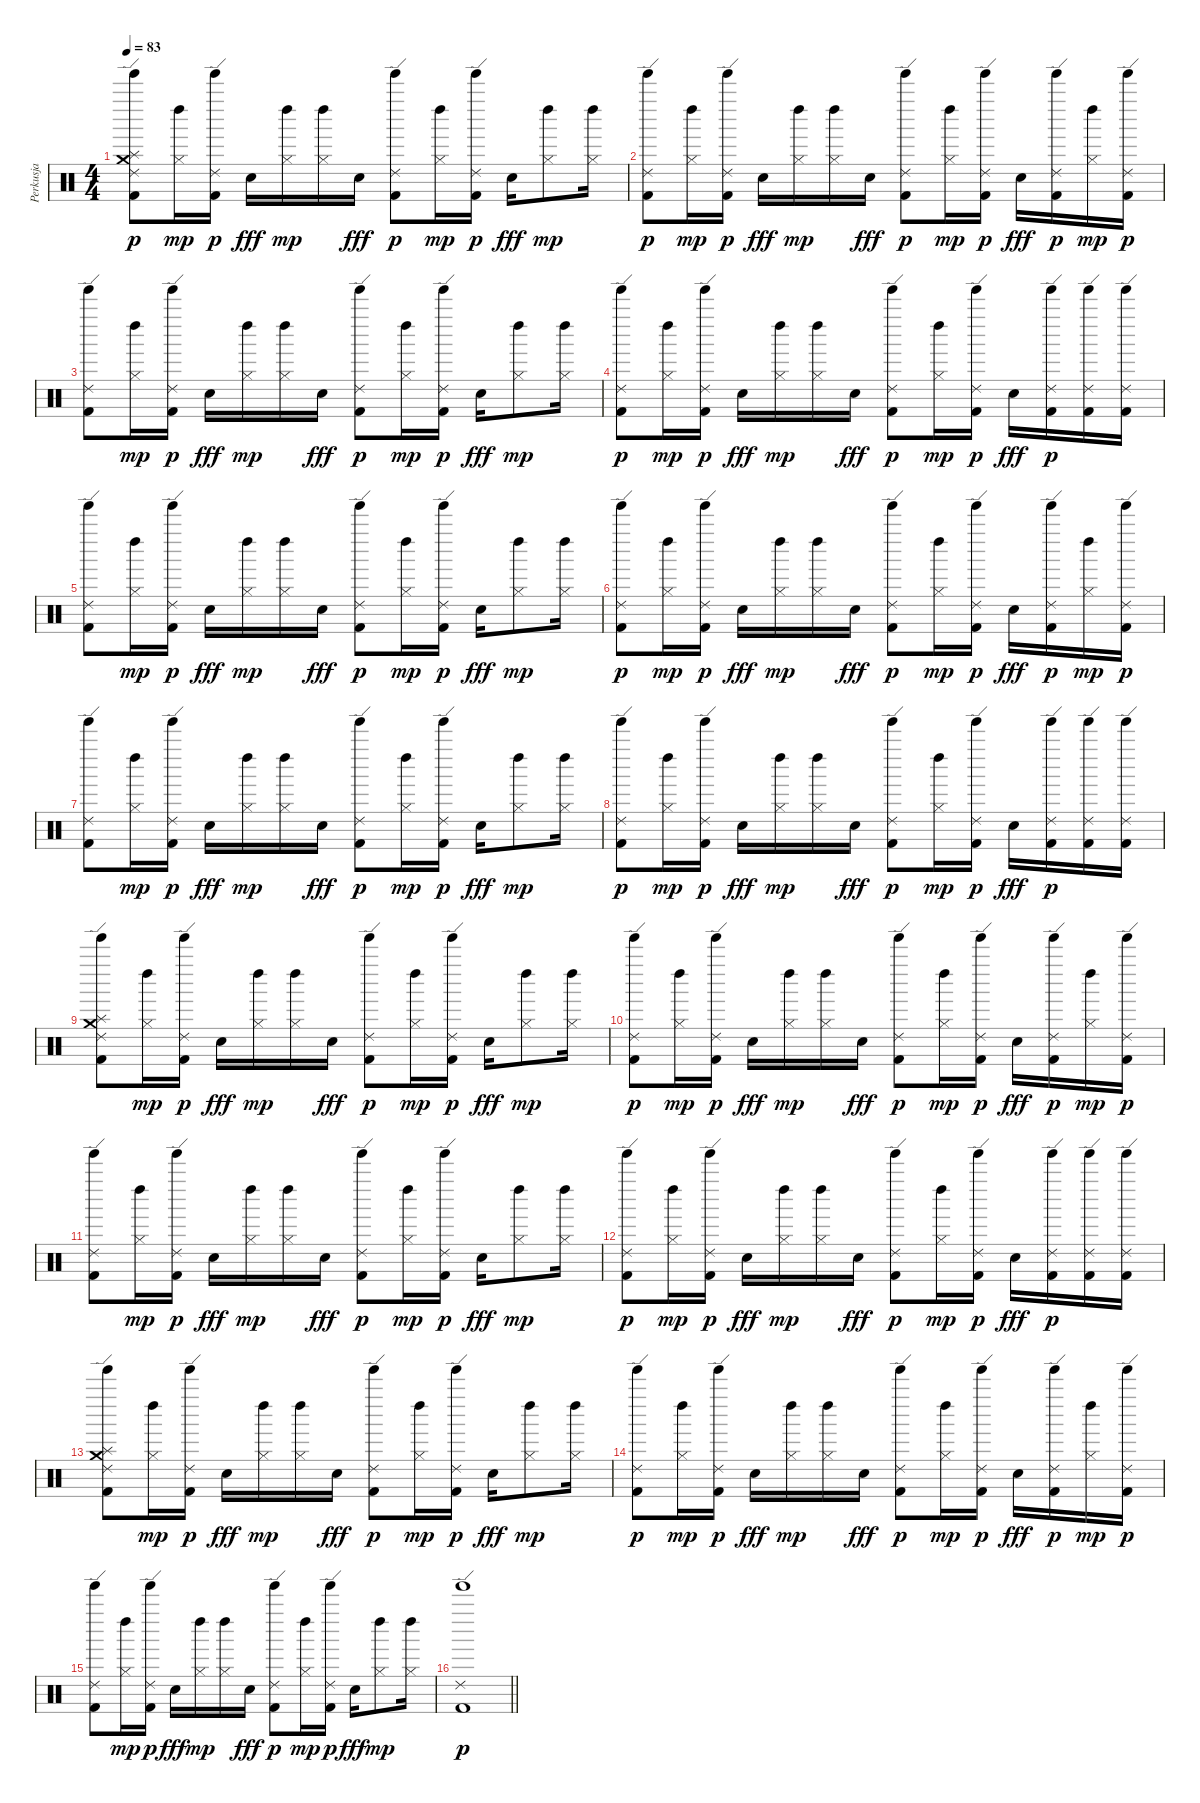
\track ("Perkusja" "Perkusja") {instrument percussion}
\staff {score}
\articulation defaults
\ts (4 4)
\tempo 83
\clef neutral
\ks c
("Crash medium (hit)" "Splash (hit)" "Tinkle Bell (hit)" "Ride (edge) 2" "Kick (hit) 2").8{dy p} ("Hi-Hat (closed)" "Left Maraca (hit)").16{dy mp} ("Tinkle Bell (hit)" "Ride (edge) 2" "Kick (hit) 2").16{dy p} "Hand Clap (hit)".16{dy fff} ("Hi-Hat (closed)" "Left Maraca (hit)").16{dy mp} ("Hi-Hat (closed)" "Left Maraca (hit)").16 "Hand Clap (hit)".16{dy fff} ("Tinkle Bell (hit)" "Ride (edge) 2" "Kick (hit) 2").8{dy p} ("Hi-Hat (closed)" "Left Maraca (hit)").16{dy mp} ("Tinkle Bell (hit)" "Ride (edge) 2" "Kick (hit) 2").16{dy p} "Hand Clap (hit)".16{dy fff} ("Hi-Hat (closed)" "Left Maraca (hit)").8{dy mp} ("Hi-Hat (closed)" "Left Maraca (hit)").16 |
("Tinkle Bell (hit)" "Ride (edge) 2" "Kick (hit) 2").8{dy p} ("Hi-Hat (closed)" "Left Maraca (hit)").16{dy mp} ("Tinkle Bell (hit)" "Ride (edge) 2" "Kick (hit) 2").16{dy p} "Hand Clap (hit)".16{dy fff} ("Hi-Hat (closed)" "Left Maraca (hit)").16{dy mp} ("Hi-Hat (closed)" "Left Maraca (hit)").16 "Hand Clap (hit)".16{dy fff} ("Tinkle Bell (hit)" "Ride (edge) 2" "Kick (hit) 2").8{dy p} ("Hi-Hat (closed)" "Left Maraca (hit)").16{dy mp} ("Tinkle Bell (hit)" "Ride (edge) 2" "Kick (hit) 2").16{dy p} "Hand Clap (hit)".16{dy fff} ("Tinkle Bell (hit)" "Ride (edge) 2" "Kick (hit) 2").16{dy p} ("Hi-Hat (closed)" "Left Maraca (hit)").16{dy mp} ("Tinkle Bell (hit)" "Ride (edge) 2" "Kick (hit) 2").16{dy p} |
("Tinkle Bell (hit)" "Ride (edge) 2" "Kick (hit) 2").8 ("Hi-Hat (closed)" "Left Maraca (hit)").16{dy mp} ("Tinkle Bell (hit)" "Ride (edge) 2" "Kick (hit) 2").16{dy p} "Hand Clap (hit)".16{dy fff} ("Hi-Hat (closed)" "Left Maraca (hit)").16{dy mp} ("Hi-Hat (closed)" "Left Maraca (hit)").16 "Hand Clap (hit)".16{dy fff} ("Tinkle Bell (hit)" "Ride (edge) 2" "Kick (hit) 2").8{dy p} ("Hi-Hat (closed)" "Left Maraca (hit)").16{dy mp} ("Tinkle Bell (hit)" "Ride (edge) 2" "Kick (hit) 2").16{dy p} "Hand Clap (hit)".16{dy fff} ("Hi-Hat (closed)" "Left Maraca (hit)").8{dy mp} ("Hi-Hat (closed)" "Left Maraca (hit)").16 |
("Tinkle Bell (hit)" "Ride (edge) 2" "Kick (hit) 2").8{dy p} ("Hi-Hat (closed)" "Left Maraca (hit)").16{dy mp} ("Tinkle Bell (hit)" "Ride (edge) 2" "Kick (hit) 2").16{dy p} "Hand Clap (hit)".16{dy fff} ("Hi-Hat (closed)" "Left Maraca (hit)").16{dy mp} ("Hi-Hat (closed)" "Left Maraca (hit)").16 "Hand Clap (hit)".16{dy fff} ("Tinkle Bell (hit)" "Ride (edge) 2" "Kick (hit) 2").8{dy p} ("Hi-Hat (closed)" "Left Maraca (hit)").16{dy mp} ("Tinkle Bell (hit)" "Ride (edge) 2" "Kick (hit) 2").16{dy p} "Hand Clap (hit)".16{dy fff} ("Tinkle Bell (hit)" "Ride (edge) 2" "Kick (hit) 2").16{dy p} ("Tinkle Bell (hit)" "Ride (edge) 2" "Kick (hit) 2").16 ("Tinkle Bell (hit)" "Ride (edge) 2" "Kick (hit) 2").16 |
("Tinkle Bell (hit)" "Ride (edge) 2" "Kick (hit) 2").8 ("Hi-Hat (closed)" "Left Maraca (hit)").16{dy mp} ("Tinkle Bell (hit)" "Ride (edge) 2" "Kick (hit) 2").16{dy p} "Hand Clap (hit)".16{dy fff} ("Hi-Hat (closed)" "Left Maraca (hit)").16{dy mp} ("Hi-Hat (closed)" "Left Maraca (hit)").16 "Hand Clap (hit)".16{dy fff} ("Tinkle Bell (hit)" "Ride (edge) 2" "Kick (hit) 2").8{dy p} ("Hi-Hat (closed)" "Left Maraca (hit)").16{dy mp} ("Tinkle Bell (hit)" "Ride (edge) 2" "Kick (hit) 2").16{dy p} "Hand Clap (hit)".16{dy fff} ("Hi-Hat (closed)" "Left Maraca (hit)").8{dy mp} ("Hi-Hat (closed)" "Left Maraca (hit)").16 |
("Tinkle Bell (hit)" "Ride (edge) 2" "Kick (hit) 2").8{dy p} ("Hi-Hat (closed)" "Left Maraca (hit)").16{dy mp} ("Tinkle Bell (hit)" "Ride (edge) 2" "Kick (hit) 2").16{dy p} "Hand Clap (hit)".16{dy fff} ("Hi-Hat (closed)" "Left Maraca (hit)").16{dy mp} ("Hi-Hat (closed)" "Left Maraca (hit)").16 "Hand Clap (hit)".16{dy fff} ("Tinkle Bell (hit)" "Ride (edge) 2" "Kick (hit) 2").8{dy p} ("Hi-Hat (closed)" "Left Maraca (hit)").16{dy mp} ("Tinkle Bell (hit)" "Ride (edge) 2" "Kick (hit) 2").16{dy p} "Hand Clap (hit)".16{dy fff} ("Tinkle Bell (hit)" "Ride (edge) 2" "Kick (hit) 2").16{dy p} ("Hi-Hat (closed)" "Left Maraca (hit)").16{dy mp} ("Tinkle Bell (hit)" "Ride (edge) 2" "Kick (hit) 2").16{dy p} |
("Tinkle Bell (hit)" "Ride (edge) 2" "Kick (hit) 2").8 ("Hi-Hat (closed)" "Left Maraca (hit)").16{dy mp} ("Tinkle Bell (hit)" "Ride (edge) 2" "Kick (hit) 2").16{dy p} "Hand Clap (hit)".16{dy fff} ("Hi-Hat (closed)" "Left Maraca (hit)").16{dy mp} ("Hi-Hat (closed)" "Left Maraca (hit)").16 "Hand Clap (hit)".16{dy fff} ("Tinkle Bell (hit)" "Ride (edge) 2" "Kick (hit) 2").8{dy p} ("Hi-Hat (closed)" "Left Maraca (hit)").16{dy mp} ("Tinkle Bell (hit)" "Ride (edge) 2" "Kick (hit) 2").16{dy p} "Hand Clap (hit)".16{dy fff} ("Hi-Hat (closed)" "Left Maraca (hit)").8{dy mp} ("Hi-Hat (closed)" "Left Maraca (hit)").16 |
("Tinkle Bell (hit)" "Ride (edge) 2" "Kick (hit) 2").8{dy p} ("Hi-Hat (closed)" "Left Maraca (hit)").16{dy mp} ("Tinkle Bell (hit)" "Ride (edge) 2" "Kick (hit) 2").16{dy p} "Hand Clap (hit)".16{dy fff} ("Hi-Hat (closed)" "Left Maraca (hit)").16{dy mp} ("Hi-Hat (closed)" "Left Maraca (hit)").16 "Hand Clap (hit)".16{dy fff} ("Tinkle Bell (hit)" "Ride (edge) 2" "Kick (hit) 2").8{dy p} ("Hi-Hat (closed)" "Left Maraca (hit)").16{dy mp} ("Tinkle Bell (hit)" "Ride (edge) 2" "Kick (hit) 2").16{dy p} "Hand Clap (hit)".16{dy fff} ("Tinkle Bell (hit)" "Ride (edge) 2" "Kick (hit) 2").16{dy p} ("Tinkle Bell (hit)" "Ride (edge) 2" "Kick (hit) 2").16 ("Tinkle Bell (hit)" "Ride (edge) 2" "Kick (hit) 2").16 |
("Crash medium (hit)" "Splash (hit)" "Tinkle Bell (hit)" "Ride (edge) 2" "Kick (hit) 2").8 ("Hi-Hat (closed)" "Left Maraca (hit)").16{dy mp} ("Tinkle Bell (hit)" "Ride (edge) 2" "Kick (hit) 2").16{dy p} "Hand Clap (hit)".16{dy fff} ("Hi-Hat (closed)" "Left Maraca (hit)").16{dy mp} ("Hi-Hat (closed)" "Left Maraca (hit)").16 "Hand Clap (hit)".16{dy fff} ("Tinkle Bell (hit)" "Ride (edge) 2" "Kick (hit) 2").8{dy p} ("Hi-Hat (closed)" "Left Maraca (hit)").16{dy mp} ("Tinkle Bell (hit)" "Ride (edge) 2" "Kick (hit) 2").16{dy p} "Hand Clap (hit)".16{dy fff} ("Hi-Hat (closed)" "Left Maraca (hit)").8{dy mp} ("Hi-Hat (closed)" "Left Maraca (hit)").16 |
("Tinkle Bell (hit)" "Ride (edge) 2" "Kick (hit) 2").8{dy p} ("Hi-Hat (closed)" "Left Maraca (hit)").16{dy mp} ("Tinkle Bell (hit)" "Ride (edge) 2" "Kick (hit) 2").16{dy p} "Hand Clap (hit)".16{dy fff} ("Hi-Hat (closed)" "Left Maraca (hit)").16{dy mp} ("Hi-Hat (closed)" "Left Maraca (hit)").16 "Hand Clap (hit)".16{dy fff} ("Tinkle Bell (hit)" "Ride (edge) 2" "Kick (hit) 2").8{dy p} ("Hi-Hat (closed)" "Left Maraca (hit)").16{dy mp} ("Tinkle Bell (hit)" "Ride (edge) 2" "Kick (hit) 2").16{dy p} "Hand Clap (hit)".16{dy fff} ("Tinkle Bell (hit)" "Ride (edge) 2" "Kick (hit) 2").16{dy p} ("Hi-Hat (closed)" "Left Maraca (hit)").16{dy mp} ("Tinkle Bell (hit)" "Ride (edge) 2" "Kick (hit) 2").16{dy p} |
("Tinkle Bell (hit)" "Ride (edge) 2" "Kick (hit) 2").8 ("Hi-Hat (closed)" "Left Maraca (hit)").16{dy mp} ("Tinkle Bell (hit)" "Ride (edge) 2" "Kick (hit) 2").16{dy p} "Hand Clap (hit)".16{dy fff} ("Hi-Hat (closed)" "Left Maraca (hit)").16{dy mp} ("Hi-Hat (closed)" "Left Maraca (hit)").16 "Hand Clap (hit)".16{dy fff} ("Tinkle Bell (hit)" "Ride (edge) 2" "Kick (hit) 2").8{dy p} ("Hi-Hat (closed)" "Left Maraca (hit)").16{dy mp} ("Tinkle Bell (hit)" "Ride (edge) 2" "Kick (hit) 2").16{dy p} "Hand Clap (hit)".16{dy fff} ("Hi-Hat (closed)" "Left Maraca (hit)").8{dy mp} ("Hi-Hat (closed)" "Left Maraca (hit)").16 |
("Tinkle Bell (hit)" "Ride (edge) 2" "Kick (hit) 2").8{dy p} ("Hi-Hat (closed)" "Left Maraca (hit)").16{dy mp} ("Tinkle Bell (hit)" "Ride (edge) 2" "Kick (hit) 2").16{dy p} "Hand Clap (hit)".16{dy fff} ("Hi-Hat (closed)" "Left Maraca (hit)").16{dy mp} ("Hi-Hat (closed)" "Left Maraca (hit)").16 "Hand Clap (hit)".16{dy fff} ("Tinkle Bell (hit)" "Ride (edge) 2" "Kick (hit) 2").8{dy p} ("Hi-Hat (closed)" "Left Maraca (hit)").16{dy mp} ("Tinkle Bell (hit)" "Ride (edge) 2" "Kick (hit) 2").16{dy p} "Hand Clap (hit)".16{dy fff} ("Tinkle Bell (hit)" "Ride (edge) 2" "Kick (hit) 2").16{dy p} ("Tinkle Bell (hit)" "Ride (edge) 2" "Kick (hit) 2").16 ("Tinkle Bell (hit)" "Ride (edge) 2" "Kick (hit) 2").16 |
("Crash medium (hit)" "Splash (hit)" "Tinkle Bell (hit)" "Ride (edge) 2" "Kick (hit) 2").8 ("Hi-Hat (closed)" "Left Maraca (hit)").16{dy mp} ("Tinkle Bell (hit)" "Ride (edge) 2" "Kick (hit) 2").16{dy p} "Hand Clap (hit)".16{dy fff} ("Hi-Hat (closed)" "Left Maraca (hit)").16{dy mp} ("Hi-Hat (closed)" "Left Maraca (hit)").16 "Hand Clap (hit)".16{dy fff} ("Tinkle Bell (hit)" "Ride (edge) 2" "Kick (hit) 2").8{dy p} ("Hi-Hat (closed)" "Left Maraca (hit)").16{dy mp} ("Tinkle Bell (hit)" "Ride (edge) 2" "Kick (hit) 2").16{dy p} "Hand Clap (hit)".16{dy fff} ("Hi-Hat (closed)" "Left Maraca (hit)").8{dy mp} ("Hi-Hat (closed)" "Left Maraca (hit)").16 |
("Tinkle Bell (hit)" "Ride (edge) 2" "Kick (hit) 2").8{dy p} ("Hi-Hat (closed)" "Left Maraca (hit)").16{dy mp} ("Tinkle Bell (hit)" "Ride (edge) 2" "Kick (hit) 2").16{dy p} "Hand Clap (hit)".16{dy fff} ("Hi-Hat (closed)" "Left Maraca (hit)").16{dy mp} ("Hi-Hat (closed)" "Left Maraca (hit)").16 "Hand Clap (hit)".16{dy fff} ("Tinkle Bell (hit)" "Ride (edge) 2" "Kick (hit) 2").8{dy p} ("Hi-Hat (closed)" "Left Maraca (hit)").16{dy mp} ("Tinkle Bell (hit)" "Ride (edge) 2" "Kick (hit) 2").16{dy p} "Hand Clap (hit)".16{dy fff} ("Tinkle Bell (hit)" "Ride (edge) 2" "Kick (hit) 2").16{dy p} ("Hi-Hat (closed)" "Left Maraca (hit)").16{dy mp} ("Tinkle Bell (hit)" "Ride (edge) 2" "Kick (hit) 2").16{dy p} |
("Tinkle Bell (hit)" "Ride (edge) 2" "Kick (hit) 2").8 ("Hi-Hat (closed)" "Left Maraca (hit)").16{dy mp} ("Tinkle Bell (hit)" "Ride (edge) 2" "Kick (hit) 2").16{dy p} "Hand Clap (hit)".16{dy fff} ("Hi-Hat (closed)" "Left Maraca (hit)").16{dy mp} ("Hi-Hat (closed)" "Left Maraca (hit)").16 "Hand Clap (hit)".16{dy fff} ("Tinkle Bell (hit)" "Ride (edge) 2" "Kick (hit) 2").8{dy p} ("Hi-Hat (closed)" "Left Maraca (hit)").16{dy mp} ("Tinkle Bell (hit)" "Ride (edge) 2" "Kick (hit) 2").16{dy p} "Hand Clap (hit)".16{dy fff} ("Hi-Hat (closed)" "Left Maraca (hit)").8{dy mp} ("Hi-Hat (closed)" "Left Maraca (hit)").16 |
\barLineRight lightlight
("Tinkle Bell (hit)" "Ride (edge) 2" "Kick (hit) 2").1{dy p}
